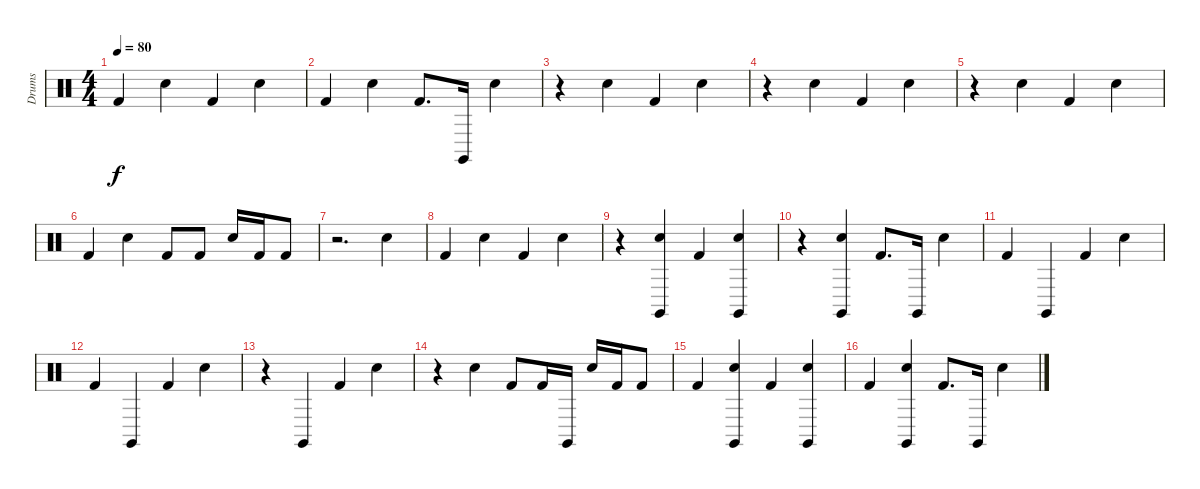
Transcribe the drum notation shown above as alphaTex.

\track ("Drums" "Drums") {instrument percussion}
\staff {score}
\articulation defaults
\ts (4 4)
\tempo 80
\clef neutral
\ks c "Kick (hit) 2".4{dy f} "Snare (hit) 2".4 "Kick (hit) 2".4 "Snare (hit) 2".4
|
"Kick (hit) 2".4 "Snare (hit) 2".4 "Kick (hit) 2".8{d} "Claves (hit)".16 "Snare (hit) 2".4 |
r.4 "Snare (hit) 2".4 "Kick (hit) 2".4 "Snare (hit) 2".4 |
r.4 "Snare (hit) 2".4 "Kick (hit) 2".4 "Snare (hit) 2".4 |
r.4 "Snare (hit) 2".4 "Kick (hit) 2".4 "Snare (hit) 2".4 |
"Kick (hit) 2".4 "Snare (hit) 2".4 "Kick (hit) 2".8 "Kick (hit) 2".8 "Snare (hit) 2".16 "Kick (hit) 2".16 "Kick (hit) 2".8 |
r.2{d} "Snare (hit) 2".4 |
"Kick (hit) 2".4 "Snare (hit) 2".4 "Kick (hit) 2".4 "Snare (hit) 2".4 |
r.4 ("Claves (hit)" "Snare (hit) 2").4 "Kick (hit) 2".4 ("Claves (hit)" "Snare (hit) 2").4 |
r.4 ("Claves (hit)" "Snare (hit) 2").4 "Kick (hit) 2".8{d} "Claves (hit)".16 "Snare (hit) 2".4 |
"Kick (hit) 2".4 "Claves (hit)".4 "Kick (hit) 2".4 "Snare (hit) 2".4 |
"Kick (hit) 2".4 "Claves (hit)".4 "Kick (hit) 2".4 "Snare (hit) 2".4 |
r.4 "Claves (hit)".4 "Kick (hit) 2".4 "Snare (hit) 2".4 |
r.4 "Snare (hit) 2".4 "Kick (hit) 2".8 "Kick (hit) 2".16 "Claves (hit)".16 "Snare (hit) 2".16 "Kick (hit) 2".16 "Kick (hit) 2".8 |
"Kick (hit) 2".4 ("Claves (hit)" "Snare (hit) 2").4 "Kick (hit) 2".4 ("Claves (hit)" "Snare (hit) 2").4 |
"Kick (hit) 2".4 ("Claves (hit)" "Snare (hit) 2").4 "Kick (hit) 2".8{d} "Claves (hit)".16 "Snare (hit) 2".4
